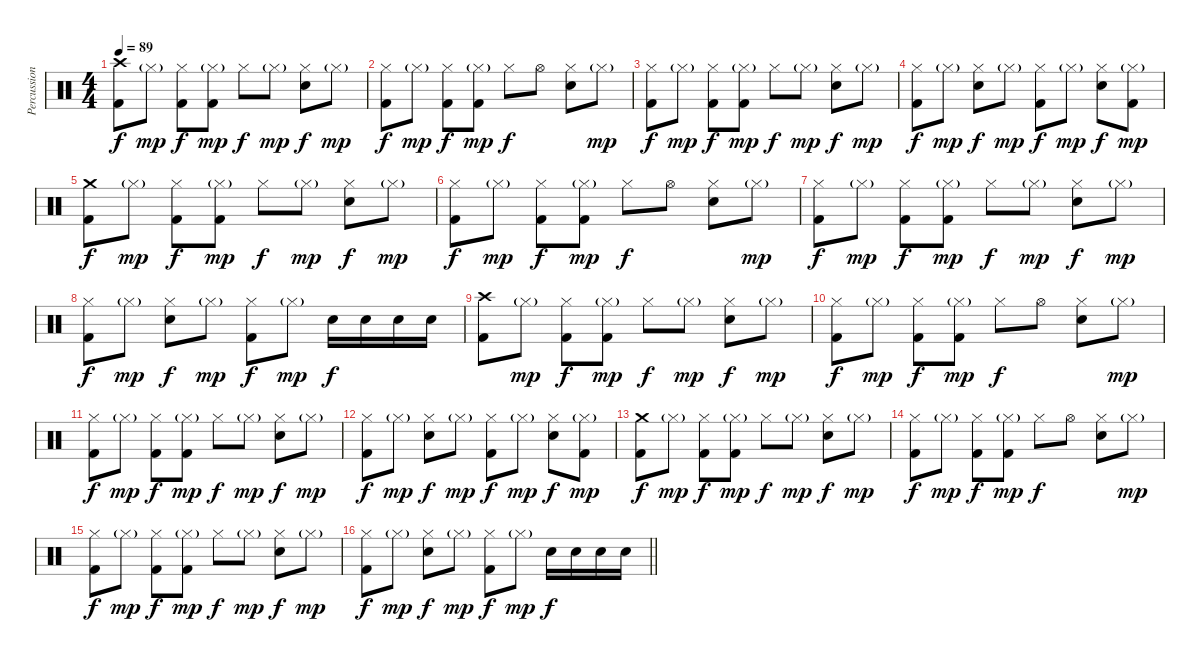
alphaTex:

\track ("Percussion" "Percussion") {instrument percussion}
\staff {score}
\articulation defaults
\ts (4 4)
\tempo 89
\clef neutral
\ks c
("Crash high (hit)" "Kick (hit) 2").8{dy f} "Hi-Hat (closed)"{g}.8{dy mp} ("Hi-Hat (closed)" "Kick (hit) 2").8{dy f} ("Hi-Hat (closed)"{g} "Kick (hit) 2").8{dy mp} "Hi-Hat (closed)".8{dy f} "Hi-Hat (closed)"{g}.8{dy mp} ("Hi-Hat (closed)" "Electric Snare (hit)").8{dy f} "Hi-Hat (closed)"{g}.8{dy mp} |
("Hi-Hat (closed)" "Kick (hit) 2").8{dy f} "Hi-Hat (closed)"{g}.8{dy mp} ("Hi-Hat (closed)" "Kick (hit) 2").8{dy f} ("Hi-Hat (closed)"{g} "Kick (hit) 2").8{dy mp} "Hi-Hat (closed)".8{dy f} "Hi-Hat (open)".8 ("Hi-Hat (closed)" "Electric Snare (hit)").8 "Hi-Hat (closed)"{g}.8{dy mp} |
("Hi-Hat (closed)" "Kick (hit) 2").8{dy f} "Hi-Hat (closed)"{g}.8{dy mp} ("Hi-Hat (closed)" "Kick (hit) 2").8{dy f} ("Hi-Hat (closed)"{g} "Kick (hit) 2").8{dy mp} "Hi-Hat (closed)".8{dy f} "Hi-Hat (closed)"{g}.8{dy mp} ("Hi-Hat (closed)" "Electric Snare (hit)").8{dy f} "Hi-Hat (closed)"{g}.8{dy mp} |
("Hi-Hat (closed)" "Kick (hit) 2").8{dy f} "Hi-Hat (closed)"{g}.8{dy mp} ("Hi-Hat (closed)" "Electric Snare (hit)").8{dy f} "Hi-Hat (closed)"{g}.8{dy mp} ("Hi-Hat (closed)" "Kick (hit) 2").8{dy f} "Hi-Hat (closed)"{g}.8{dy mp} ("Hi-Hat (closed)" "Electric Snare (hit)").8{dy f} ("Hi-Hat (closed)"{g} "Kick (hit) 2").8{dy mp} |
("Crash medium (hit)" "Kick (hit) 2").8{dy f} "Hi-Hat (closed)"{g}.8{dy mp} ("Hi-Hat (closed)" "Kick (hit) 2").8{dy f} ("Hi-Hat (closed)"{g} "Kick (hit) 2").8{dy mp} "Hi-Hat (closed)".8{dy f} "Hi-Hat (closed)"{g}.8{dy mp} ("Hi-Hat (closed)" "Electric Snare (hit)").8{dy f} "Hi-Hat (closed)"{g}.8{dy mp} |
("Hi-Hat (closed)" "Kick (hit) 2").8{dy f} "Hi-Hat (closed)"{g}.8{dy mp} ("Hi-Hat (closed)" "Kick (hit) 2").8{dy f} ("Hi-Hat (closed)"{g} "Kick (hit) 2").8{dy mp} "Hi-Hat (closed)".8{dy f} "Hi-Hat (open)".8 ("Hi-Hat (closed)" "Electric Snare (hit)").8 "Hi-Hat (closed)"{g}.8{dy mp} |
("Hi-Hat (closed)" "Kick (hit) 2").8{dy f} "Hi-Hat (closed)"{g}.8{dy mp} ("Hi-Hat (closed)" "Kick (hit) 2").8{dy f} ("Hi-Hat (closed)"{g} "Kick (hit) 2").8{dy mp} "Hi-Hat (closed)".8{dy f} "Hi-Hat (closed)"{g}.8{dy mp} ("Hi-Hat (closed)" "Electric Snare (hit)").8{dy f} "Hi-Hat (closed)"{g}.8{dy mp} |
("Hi-Hat (closed)" "Kick (hit) 2").8{dy f} "Hi-Hat (closed)"{g}.8{dy mp} ("Hi-Hat (closed)" "Electric Snare (hit)").8{dy f} "Hi-Hat (closed)"{g}.8{dy mp} ("Hi-Hat (closed)" "Kick (hit) 2").8{dy f} "Hi-Hat (closed)"{g}.8{dy mp} "Electric Snare (hit)".16{dy f} "Electric Snare (hit)".16 "Electric Snare (hit)".16 "Electric Snare (hit)".16 |
("Crash high (hit)" "Kick (hit) 2").8 "Hi-Hat (closed)"{g}.8{dy mp} ("Hi-Hat (closed)" "Kick (hit) 2").8{dy f} ("Hi-Hat (closed)"{g} "Kick (hit) 2").8{dy mp} "Hi-Hat (closed)".8{dy f} "Hi-Hat (closed)"{g}.8{dy mp} ("Hi-Hat (closed)" "Electric Snare (hit)").8{dy f} "Hi-Hat (closed)"{g}.8{dy mp} |
("Hi-Hat (closed)" "Kick (hit) 2").8{dy f} "Hi-Hat (closed)"{g}.8{dy mp} ("Hi-Hat (closed)" "Kick (hit) 2").8{dy f} ("Hi-Hat (closed)"{g} "Kick (hit) 2").8{dy mp} "Hi-Hat (closed)".8{dy f} "Hi-Hat (open)".8 ("Hi-Hat (closed)" "Electric Snare (hit)").8 "Hi-Hat (closed)"{g}.8{dy mp} |
("Hi-Hat (closed)" "Kick (hit) 2").8{dy f} "Hi-Hat (closed)"{g}.8{dy mp} ("Hi-Hat (closed)" "Kick (hit) 2").8{dy f} ("Hi-Hat (closed)"{g} "Kick (hit) 2").8{dy mp} "Hi-Hat (closed)".8{dy f} "Hi-Hat (closed)"{g}.8{dy mp} ("Hi-Hat (closed)" "Electric Snare (hit)").8{dy f} "Hi-Hat (closed)"{g}.8{dy mp} |
("Hi-Hat (closed)" "Kick (hit) 2").8{dy f} "Hi-Hat (closed)"{g}.8{dy mp} ("Hi-Hat (closed)" "Electric Snare (hit)").8{dy f} "Hi-Hat (closed)"{g}.8{dy mp} ("Hi-Hat (closed)" "Kick (hit) 2").8{dy f} "Hi-Hat (closed)"{g}.8{dy mp} ("Hi-Hat (closed)" "Electric Snare (hit)").8{dy f} ("Hi-Hat (closed)"{g} "Kick (hit) 2").8{dy mp} |
("Crash medium (hit)" "Kick (hit) 2").8{dy f} "Hi-Hat (closed)"{g}.8{dy mp} ("Hi-Hat (closed)" "Kick (hit) 2").8{dy f} ("Hi-Hat (closed)"{g} "Kick (hit) 2").8{dy mp} "Hi-Hat (closed)".8{dy f} "Hi-Hat (closed)"{g}.8{dy mp} ("Hi-Hat (closed)" "Electric Snare (hit)").8{dy f} "Hi-Hat (closed)"{g}.8{dy mp} |
("Hi-Hat (closed)" "Kick (hit) 2").8{dy f} "Hi-Hat (closed)"{g}.8{dy mp} ("Hi-Hat (closed)" "Kick (hit) 2").8{dy f} ("Hi-Hat (closed)"{g} "Kick (hit) 2").8{dy mp} "Hi-Hat (closed)".8{dy f} "Hi-Hat (open)".8 ("Hi-Hat (closed)" "Electric Snare (hit)").8 "Hi-Hat (closed)"{g}.8{dy mp} |
("Hi-Hat (closed)" "Kick (hit) 2").8{dy f} "Hi-Hat (closed)"{g}.8{dy mp} ("Hi-Hat (closed)" "Kick (hit) 2").8{dy f} ("Hi-Hat (closed)"{g} "Kick (hit) 2").8{dy mp} "Hi-Hat (closed)".8{dy f} "Hi-Hat (closed)"{g}.8{dy mp} ("Hi-Hat (closed)" "Electric Snare (hit)").8{dy f} "Hi-Hat (closed)"{g}.8{dy mp} |
\barLineRight lightlight
("Hi-Hat (closed)" "Kick (hit) 2").8{dy f} "Hi-Hat (closed)"{g}.8{dy mp} ("Hi-Hat (closed)" "Electric Snare (hit)").8{dy f} "Hi-Hat (closed)"{g}.8{dy mp} ("Hi-Hat (closed)" "Kick (hit) 2").8{dy f} "Hi-Hat (closed)"{g}.8{dy mp} "Electric Snare (hit)".16{dy f} "Electric Snare (hit)".16 "Electric Snare (hit)".16 "Electric Snare (hit)".16
